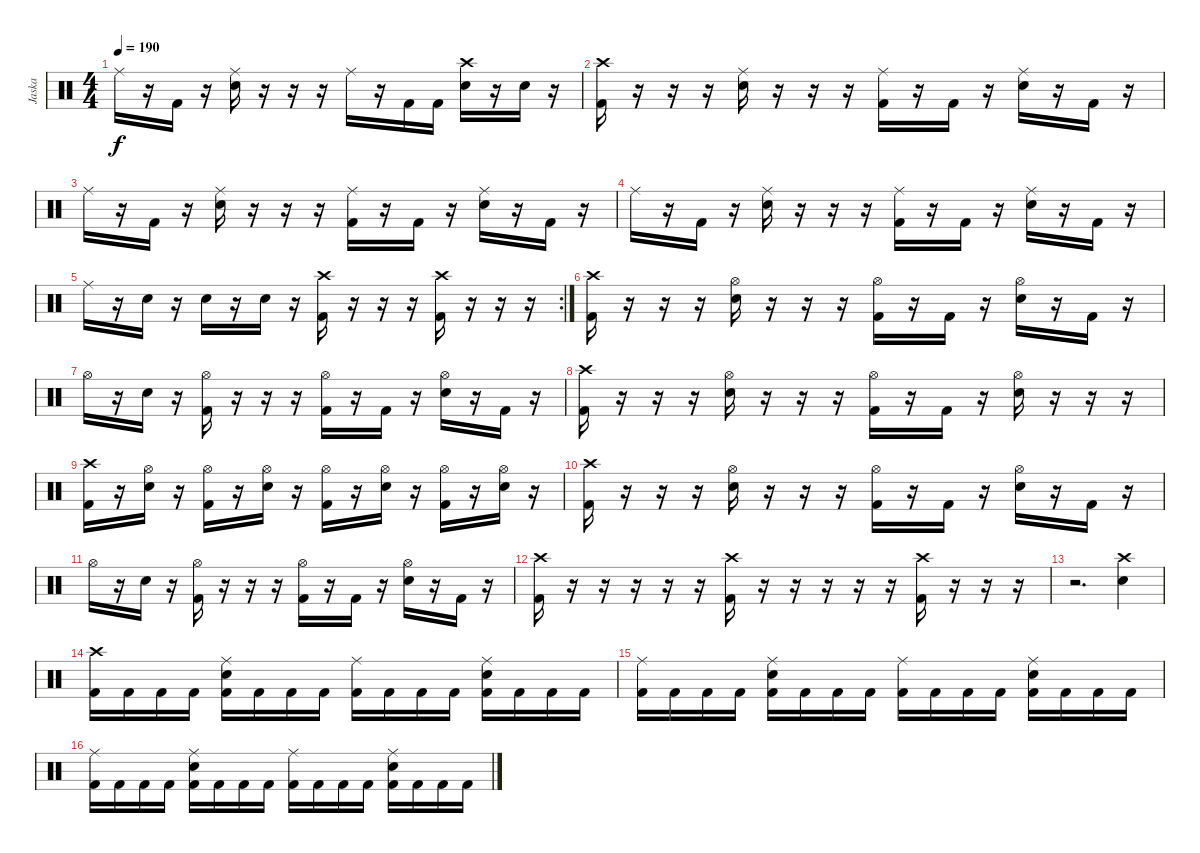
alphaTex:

\track ("Jaska" "Jaska") {instrument percussion}
\staff {score}
\articulation defaults
\ts (4 4)
\tempo 190
\clef neutral
\ks c "Ride (middle)".16{dy f}
r.16 "Kick (hit) 2".16 r.16 ("Ride (middle)" "Electric Snare (hit)").16 r.16 r.16 r.16 "Ride (middle)".16 r.16 "Kick (hit) 2".16 "Kick (hit) 2".16 ("Crash high (hit)" "Electric Snare (hit)").16 r.16 "Electric Snare (hit)".16 r.16 |
("Crash high (hit)" "Kick (hit) 2").16 r.16 r.16 r.16 ("Ride (middle)" "Electric Snare (hit)").16 r.16 r.16 r.16 ("Ride (middle)" "Kick (hit) 2").16 r.16 "Kick (hit) 2".16 r.16 ("Ride (middle)" "Electric Snare (hit)").16 r.16 "Kick (hit) 2".16 r.16 |
"Ride (middle)".16 r.16 "Kick (hit) 2".16 r.16 ("Ride (middle)" "Electric Snare (hit)").16 r.16 r.16 r.16 ("Ride (middle)" "Kick (hit) 2").16 r.16 "Kick (hit) 2".16 r.16 ("Ride (middle)" "Electric Snare (hit)").16 r.16 "Kick (hit) 2".16 r.16 |
"Ride (middle)".16 r.16 "Kick (hit) 2".16 r.16 ("Ride (middle)" "Electric Snare (hit)").16 r.16 r.16 r.16 ("Ride (middle)" "Kick (hit) 2").16 r.16 "Kick (hit) 2".16 r.16 ("Ride (middle)" "Electric Snare (hit)").16 r.16 "Kick (hit) 2".16 r.16 |
\rc 2 "Ride (middle)".16
r.16 "Electric Snare (hit)".16 r.16 "Electric Snare (hit)".16 r.16 "Electric Snare (hit)".16 r.16 ("Crash high (hit)" "Kick (hit) 2").16 r.16 r.16 r.16 ("Crash high (hit)" "Kick (hit) 2").16 r.16 r.16 r.16 |
("Crash high (hit)" "Kick (hit) 2").16 r.16 r.16 r.16 ("Hi-Hat (open)" "Electric Snare (hit)").16 r.16 r.16 r.16 ("Hi-Hat (open)" "Kick (hit) 2").16 r.16 "Kick (hit) 2".16 r.16 ("Hi-Hat (open)" "Electric Snare (hit)").16 r.16 "Kick (hit) 2".16 r.16 |
"Hi-Hat (open)".16 r.16 "Electric Snare (hit)".16 r.16 ("Hi-Hat (open)" "Kick (hit) 2").16 r.16 r.16 r.16 ("Hi-Hat (open)" "Kick (hit) 2").16 r.16 "Kick (hit) 2".16 r.16 ("Hi-Hat (open)" "Electric Snare (hit)").16 r.16 "Kick (hit) 2".16 r.16 |
("Crash high (hit)" "Kick (hit) 2").16 r.16 r.16 r.16 ("Hi-Hat (open)" "Electric Snare (hit)").16 r.16 r.16 r.16 ("Hi-Hat (open)" "Kick (hit) 2").16 r.16 "Kick (hit) 2".16 r.16 ("Hi-Hat (open)" "Electric Snare (hit)").16 r.16 r.16 r.16 |
("Crash high (hit)" "Kick (hit) 2").16 r.16 ("Hi-Hat (open)" "Electric Snare (hit)").16 r.16 ("Hi-Hat (open)" "Kick (hit) 2").16 r.16 ("Hi-Hat (open)" "Electric Snare (hit)").16 r.16 ("Hi-Hat (open)" "Kick (hit) 2").16 r.16 ("Hi-Hat (open)" "Electric Snare (hit)").16 r.16 ("Hi-Hat (open)" "Kick (hit) 2").16 r.16 ("Hi-Hat (open)" "Electric Snare (hit)").16 r.16 |
("Crash high (hit)" "Kick (hit) 2").16 r.16 r.16 r.16 ("Hi-Hat (open)" "Electric Snare (hit)").16 r.16 r.16 r.16 ("Hi-Hat (open)" "Kick (hit) 2").16 r.16 "Kick (hit) 2".16 r.16 ("Hi-Hat (open)" "Electric Snare (hit)").16 r.16 "Kick (hit) 2".16 r.16 |
"Hi-Hat (open)".16 r.16 "Electric Snare (hit)".16 r.16 ("Hi-Hat (open)" "Kick (hit) 2").16 r.16 r.16 r.16 ("Hi-Hat (open)" "Kick (hit) 2").16 r.16 "Kick (hit) 2".16 r.16 ("Hi-Hat (open)" "Electric Snare (hit)").16 r.16 "Kick (hit) 2".16 r.16 |
("Crash high (hit)" "Kick (hit) 2").16 r.16 r.16 r.16 r.16 r.16 ("Crash high (hit)" "Kick (hit) 2").16 r.16 r.16 r.16 r.16 r.16 ("Crash high (hit)" "Kick (hit) 2").16 r.16 r.16 r.16 |
r.2{d} ("Crash high (hit)" "Electric Snare (hit)").4 |
("Crash high (hit)" "Kick (hit) 2").16 "Kick (hit) 2".16 "Kick (hit) 2".16 "Kick (hit) 2".16 ("Ride (middle)" "Electric Snare (hit)" "Kick (hit) 2").16 "Kick (hit) 2".16 "Kick (hit) 2".16 "Kick (hit) 2".16 ("Ride (middle)" "Kick (hit) 2").16 "Kick (hit) 2".16 "Kick (hit) 2".16 "Kick (hit) 2".16 ("Ride (middle)" "Electric Snare (hit)" "Kick (hit) 2").16 "Kick (hit) 2".16 "Kick (hit) 2".16 "Kick (hit) 2".16 |
("Ride (middle)" "Kick (hit) 2").16 "Kick (hit) 2".16 "Kick (hit) 2".16 "Kick (hit) 2".16 ("Ride (middle)" "Electric Snare (hit)" "Kick (hit) 2").16 "Kick (hit) 2".16 "Kick (hit) 2".16 "Kick (hit) 2".16 ("Ride (middle)" "Kick (hit) 2").16 "Kick (hit) 2".16 "Kick (hit) 2".16 "Kick (hit) 2".16 ("Ride (middle)" "Electric Snare (hit)" "Kick (hit) 2").16 "Kick (hit) 2".16 "Kick (hit) 2".16 "Kick (hit) 2".16 |
("Ride (middle)" "Kick (hit) 2").16 "Kick (hit) 2".16 "Kick (hit) 2".16 "Kick (hit) 2".16 ("Ride (middle)" "Electric Snare (hit)" "Kick (hit) 2").16 "Kick (hit) 2".16 "Kick (hit) 2".16 "Kick (hit) 2".16 ("Ride (middle)" "Kick (hit) 2").16 "Kick (hit) 2".16 "Kick (hit) 2".16 "Kick (hit) 2".16 ("Ride (middle)" "Electric Snare (hit)" "Kick (hit) 2").16 "Kick (hit) 2".16 "Kick (hit) 2".16 "Kick (hit) 2".16
